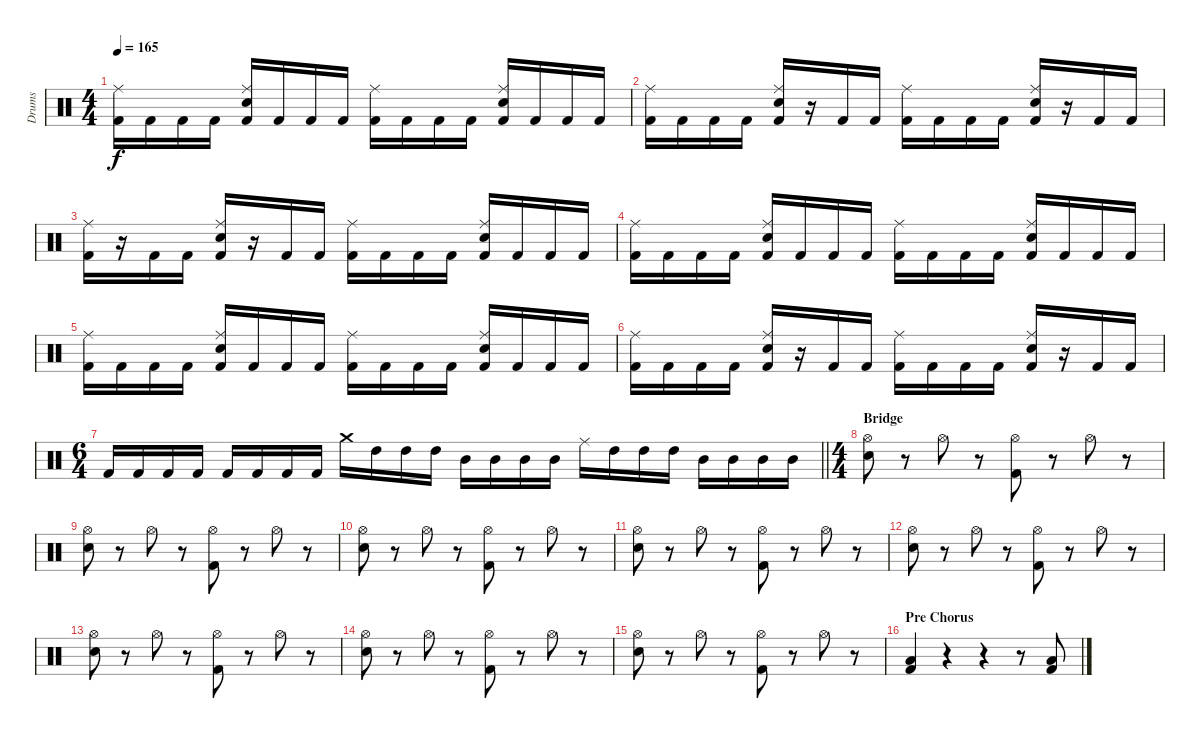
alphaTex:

\track ("Drums" "Drums") {instrument percussion}
\staff {score}
\articulation defaults
\ts (4 4)
\tempo 165
\clef neutral
\ks c
("Kick (hit) 2" "Ride (middle)").16{dy f} "Kick (hit) 2".16 "Kick (hit) 2".16 "Kick (hit) 2".16 ("Kick (hit) 2" "Electric Snare (hit)" "Ride (middle)").16 "Kick (hit) 2".16 "Kick (hit) 2".16 "Kick (hit) 2".16 ("Kick (hit) 2" "Ride (middle)").16 "Kick (hit) 2".16 "Kick (hit) 2".16 "Kick (hit) 2".16 ("Kick (hit) 2" "Electric Snare (hit)" "Ride (middle)").16 "Kick (hit) 2".16 "Kick (hit) 2".16 "Kick (hit) 2".16 |
("Kick (hit) 2" "Ride (middle)").16 "Kick (hit) 2".16 "Kick (hit) 2".16 "Kick (hit) 2".16 ("Kick (hit) 2" "Electric Snare (hit)" "Ride (middle)").16 r.16 "Kick (hit) 2".16 "Kick (hit) 2".16 ("Kick (hit) 2" "Ride (middle)").16 "Kick (hit) 2".16 "Kick (hit) 2".16 "Kick (hit) 2".16 ("Kick (hit) 2" "Electric Snare (hit)" "Ride (middle)").16 r.16 "Kick (hit) 2".16 "Kick (hit) 2".16 |
("Kick (hit) 2" "Ride (middle)").16 r.16 "Kick (hit) 2".16 "Kick (hit) 2".16 ("Kick (hit) 2" "Electric Snare (hit)" "Ride (middle)").16 r.16 "Kick (hit) 2".16 "Kick (hit) 2".16 ("Kick (hit) 2" "Ride (middle)").16 "Kick (hit) 2".16 "Kick (hit) 2".16 "Kick (hit) 2".16 ("Kick (hit) 2" "Electric Snare (hit)" "Ride (middle)").16 "Kick (hit) 2".16 "Kick (hit) 2".16 "Kick (hit) 2".16 |
("Kick (hit) 2" "Ride (middle)").16 "Kick (hit) 2".16 "Kick (hit) 2".16 "Kick (hit) 2".16 ("Kick (hit) 2" "Electric Snare (hit)" "Ride (middle)").16 "Kick (hit) 2".16 "Kick (hit) 2".16 "Kick (hit) 2".16 ("Kick (hit) 2" "Ride (middle)").16 "Kick (hit) 2".16 "Kick (hit) 2".16 "Kick (hit) 2".16 ("Kick (hit) 2" "Electric Snare (hit)" "Ride (middle)").16 "Kick (hit) 2".16 "Kick (hit) 2".16 "Kick (hit) 2".16 |
("Kick (hit) 2" "Ride (middle)").16 "Kick (hit) 2".16 "Kick (hit) 2".16 "Kick (hit) 2".16 ("Kick (hit) 2" "Electric Snare (hit)" "Ride (middle)").16 "Kick (hit) 2".16 "Kick (hit) 2".16 "Kick (hit) 2".16 ("Kick (hit) 2" "Ride (middle)").16 "Kick (hit) 2".16 "Kick (hit) 2".16 "Kick (hit) 2".16 ("Kick (hit) 2" "Electric Snare (hit)" "Ride (middle)").16 "Kick (hit) 2".16 "Kick (hit) 2".16 "Kick (hit) 2".16 |
("Kick (hit) 2" "Ride (middle)").16 "Kick (hit) 2".16 "Kick (hit) 2".16 "Kick (hit) 2".16 ("Kick (hit) 2" "Electric Snare (hit)" "Ride (middle)").16 r.16 "Kick (hit) 2".16 "Kick (hit) 2".16 ("Kick (hit) 2" "Ride (middle)").16 "Kick (hit) 2".16 "Kick (hit) 2".16 "Kick (hit) 2".16 ("Kick (hit) 2" "Electric Snare (hit)" "Ride (middle)").16 r.16 "Kick (hit) 2".16 "Kick (hit) 2".16 |
\ts (6 4)
\barLineRight lightlight "Kick (hit) 2".16 "Kick (hit) 2".16 "Kick (hit) 2".16 "Kick (hit) 2".16 "Kick (hit) 2".16 "Kick (hit) 2".16 "Kick (hit) 2".16 "Kick (hit) 2".16 "Crash medium (hit)".16 "High Tom (hit)".16 "High Tom (hit)".16 "High Tom (hit)".16 "Mid Tom (hit)".16 "Mid Tom (hit)".16 "Mid Tom (hit)".16 "Mid Tom (hit)".16 "Ride (middle)".16 "High Tom (hit)".16 "High Tom (hit)".16 "High Tom (hit)".16 "Mid Tom (hit)".16 "Mid Tom (hit)".16 "Mid Tom (hit)".16 "Mid Tom (hit)".16
|
\ts (4 4)
\section ("" "Bridge")
("Electric Snare (hit)" "Hi-Hat (open)").8 r.8 "Hi-Hat (open)".8 r.8 ("Kick (hit) 2" "Hi-Hat (open)").8 r.8 "Hi-Hat (open)".8 r.8 |
("Electric Snare (hit)" "Hi-Hat (open)").8 r.8 "Hi-Hat (open)".8 r.8 ("Kick (hit) 2" "Hi-Hat (open)").8 r.8 "Hi-Hat (open)".8 r.8 |
("Electric Snare (hit)" "Hi-Hat (open)").8 r.8 "Hi-Hat (open)".8 r.8 ("Kick (hit) 2" "Hi-Hat (open)").8 r.8 "Hi-Hat (open)".8 r.8 |
("Electric Snare (hit)" "Hi-Hat (open)").8 r.8 "Hi-Hat (open)".8 r.8 ("Kick (hit) 2" "Hi-Hat (open)").8 r.8 "Hi-Hat (open)".8 r.8 |
("Electric Snare (hit)" "Hi-Hat (open)").8 r.8 "Hi-Hat (open)".8 r.8 ("Kick (hit) 2" "Hi-Hat (open)").8 r.8 "Hi-Hat (open)".8 r.8 |
("Electric Snare (hit)" "Hi-Hat (open)").8 r.8 "Hi-Hat (open)".8 r.8 ("Kick (hit) 2" "Hi-Hat (open)").8 r.8 "Hi-Hat (open)".8 r.8 |
("Electric Snare (hit)" "Hi-Hat (open)").8 r.8 "Hi-Hat (open)".8 r.8 ("Kick (hit) 2" "Hi-Hat (open)").8 r.8 "Hi-Hat (open)".8 r.8 |
("Electric Snare (hit)" "Hi-Hat (open)").8 r.8 "Hi-Hat (open)".8 r.8 ("Kick (hit) 2" "Hi-Hat (open)").8 r.8 "Hi-Hat (open)".8 r.8 |
\section ("" "Pre Chorus")
("Kick (hit) 2" "Low Tom (hit)").4 r.4 r.4 r.8 ("Kick (hit) 2" "Low Tom (hit)").8
